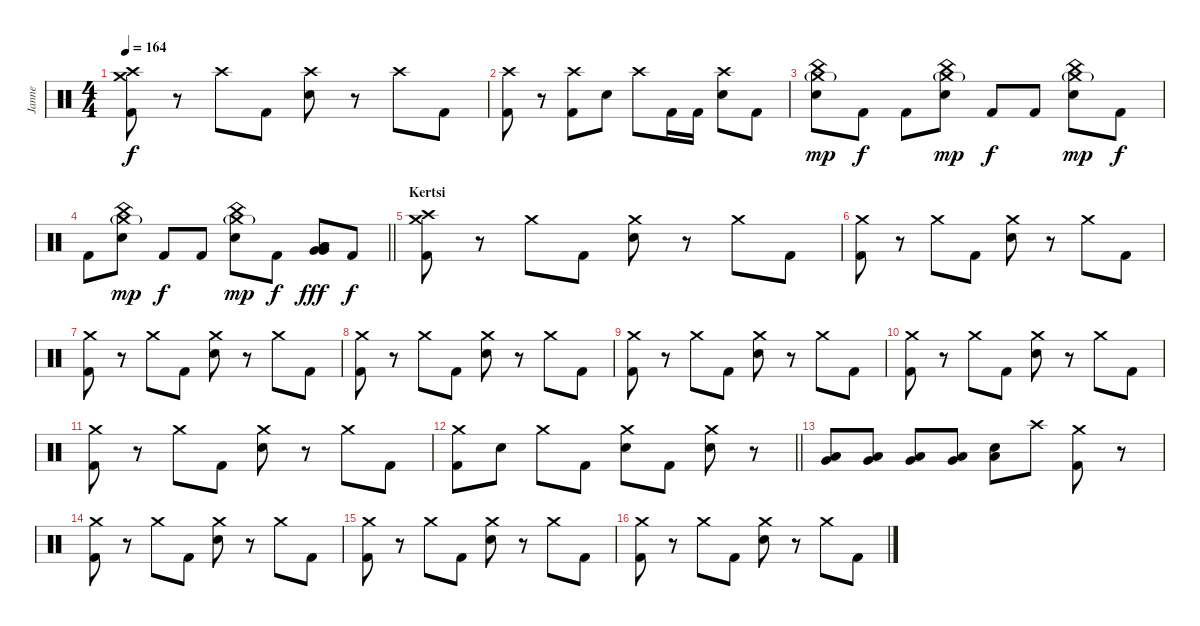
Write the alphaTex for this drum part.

\track ("Janne" "Janne") {instrument percussion}
\staff {score}
\articulation defaults
\ts (4 4)
\tempo 164
\clef neutral
\ks c
("Crash medium (hit)" "Crash high (hit)" "Kick (hit) 2").8{dy f} r.8 "Crash high (hit)".8 "Kick (hit) 2".8 ("Crash high (hit)" "Electric Snare (hit)").8 r.8 "Crash high (hit)".8 "Kick (hit) 2".8 |
("Crash high (hit)" "Kick (hit) 2").8 r.8 ("Crash high (hit)" "Kick (hit) 2").8 "Electric Snare (hit)".8 "Crash high (hit)".8 "Kick (hit) 2".16 "Kick (hit) 2".16 ("Crash high (hit)" "Electric Snare (hit)").8 "Kick (hit) 2".8 |
("China (hit)" "Electric Snare (hit)" "Crash medium (hit)"{g}).8{dy mp} "Kick (hit) 2".8{dy f} "Kick (hit) 2".8 ("China (hit)" "Electric Snare (hit)" "Crash medium (hit)"{g}).8{dy mp} "Kick (hit) 2".8{dy f} "Kick (hit) 2".8 ("China (hit)" "Electric Snare (hit)" "Crash medium (hit)"{g}).8{dy mp} "Kick (hit) 2".8{dy f} |
\barLineRight lightlight "Kick (hit) 2".8
("China (hit)" "Electric Snare (hit)" "Crash medium (hit)"{g}).8{dy mp} "Kick (hit) 2".8{dy f} "Kick (hit) 2".8 ("China (hit)" "Electric Snare (hit)" "Crash medium (hit)"{g}).8{dy mp} "Kick (hit) 2".8{dy f} ("Very Low Tom (hit)" "Very Low Tom (hit)" "Low Floor Tom (hit)" "Low Floor Tom (hit)").8{dy fff} "Kick (hit) 2".8{dy f} |
\section ("" "Kertsi")
("Crash medium (hit)" "Crash high (hit)" "Kick (hit) 2").8 r.8 "Crash medium (hit)".8 "Kick (hit) 2".8 ("Crash medium (hit)" "Electric Snare (hit)").8 r.8 "Crash medium (hit)".8 "Kick (hit) 2".8 |
("Crash medium (hit)" "Kick (hit) 2").8 r.8 "Crash medium (hit)".8 "Kick (hit) 2".8 ("Crash medium (hit)" "Electric Snare (hit)").8 r.8 "Crash medium (hit)".8 "Kick (hit) 2".8 |
("Crash medium (hit)" "Kick (hit) 2").8 r.8 "Crash medium (hit)".8 "Kick (hit) 2".8 ("Crash medium (hit)" "Electric Snare (hit)").8 r.8 "Crash medium (hit)".8 "Kick (hit) 2".8 |
("Crash medium (hit)" "Kick (hit) 2").8 r.8 "Crash medium (hit)".8 "Kick (hit) 2".8 ("Crash medium (hit)" "Electric Snare (hit)").8 r.8 "Crash medium (hit)".8 "Kick (hit) 2".8 |
("Crash medium (hit)" "Kick (hit) 2").8 r.8 "Crash medium (hit)".8 "Kick (hit) 2".8 ("Crash medium (hit)" "Electric Snare (hit)").8 r.8 "Crash medium (hit)".8 "Kick (hit) 2".8 |
("Crash medium (hit)" "Kick (hit) 2").8 r.8 "Crash medium (hit)".8 "Kick (hit) 2".8 ("Crash medium (hit)" "Electric Snare (hit)").8 r.8 "Crash medium (hit)".8 "Kick (hit) 2".8 |
("Crash medium (hit)" "Kick (hit) 2").8 r.8 "Crash medium (hit)".8 "Kick (hit) 2".8 ("Crash medium (hit)" "Electric Snare (hit)").8 r.8 "Crash medium (hit)".8 "Kick (hit) 2".8 |
\barLineRight lightlight
("Crash medium (hit)" "Kick (hit) 2").8 "Electric Snare (hit)".8 "Crash medium (hit)".8 "Kick (hit) 2".8 ("Crash medium (hit)" "Electric Snare (hit)").8 "Kick (hit) 2".8 ("Crash medium (hit)" "Electric Snare (hit)").8 r.8 |
("Very Low Tom (hit)" "Low Floor Tom (hit)").8 ("Very Low Tom (hit)" "Low Floor Tom (hit)").8 ("Very Low Tom (hit)" "Low Floor Tom (hit)").8 ("Very Low Tom (hit)" "Low Floor Tom (hit)").8 ("Electric Snare (hit)" "Low Floor Tom (hit)").8 "Crash high (hit)".8 ("Crash medium (hit)" "Kick (hit) 2").8 r.8 |
("Crash medium (hit)" "Kick (hit) 2").8 r.8 "Crash medium (hit)".8 "Kick (hit) 2".8 ("Crash medium (hit)" "Electric Snare (hit)").8 r.8 "Crash medium (hit)".8 "Kick (hit) 2".8 |
("Crash medium (hit)" "Kick (hit) 2").8 r.8 "Crash medium (hit)".8 "Kick (hit) 2".8 ("Crash medium (hit)" "Electric Snare (hit)").8 r.8 "Crash medium (hit)".8 "Kick (hit) 2".8 |
("Crash medium (hit)" "Kick (hit) 2").8 r.8 "Crash medium (hit)".8 "Kick (hit) 2".8 ("Crash medium (hit)" "Electric Snare (hit)").8 r.8 "Crash medium (hit)".8 "Kick (hit) 2".8
